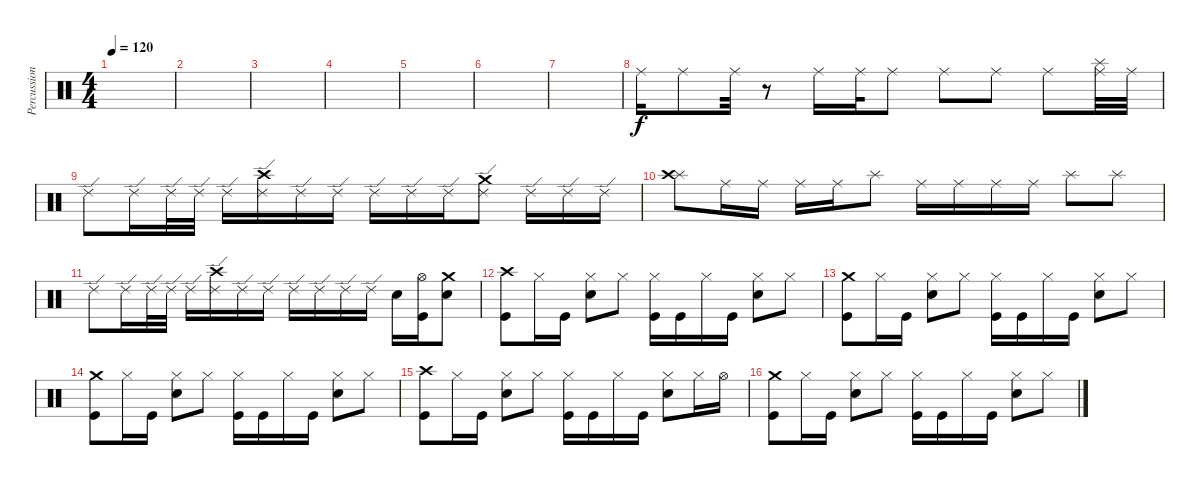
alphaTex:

\track ("Percussions" "Percussion") {instrument percussion}
\staff {score}
\articulation defaults
\ts (4 4)
\tempo 120
\clef neutral
\ks c
|
|
|
|
|
|
|
"Ride (middle)".16 "Ride (middle)".8 "Ride (middle)".32 r.8 "Ride (middle)".16 "Ride (middle)".32 "Ride (middle)".8 "Ride (middle)".8 "Ride (middle)".8 "Ride (middle)".8 ("Ride (middle)" "Splash (hit)").32 "Ride (middle)".32 |
"Ride (edge) 2".8 "Ride (edge) 2".16 "Ride (edge) 2".32 "Ride (edge) 2".32 "Ride (edge) 2".16 ("Ride (edge) 2" "Crash high (hit)").16 "Ride (edge) 2".16 "Ride (edge) 2".16 "Ride (edge) 2".16 "Ride (edge) 2".16 "Ride (edge) 2".16 ("Ride (edge) 2" "Crash medium (hit)").8 "Ride (edge) 2".16 "Ride (edge) 2".16 "Ride (edge) 2".16 |
("Splash (hit)" "Crash high (hit)").8 "Ride (middle)".16 "Ride (middle)".16 "Ride (middle)".16 "Ride (middle)".16 "Splash (hit)".8 "Ride (middle)".16 "Ride (middle)".16 "Ride (middle)".16 "Ride (middle)".16 "Splash (hit)".8 "Splash (hit)".8 |
"Ride (edge) 2".8 "Ride (edge) 2".16 "Ride (edge) 2".32 "Ride (edge) 2".32 "Ride (edge) 2".16 ("Ride (edge) 2" "Crash high (hit)").16 "Ride (edge) 2".16 "Ride (edge) 2".16 "Ride (edge) 2".16 "Ride (edge) 2".16 "Ride (edge) 2".16 "Ride (edge) 2".16 "Electric Snare (hit)".16 ("Hi-Hat (open)" "Kick (hit)").16 ("Snare (hit) 2" "Crash medium (hit)").8 |
("Crash high (hit)" "Kick (hit)").8 "Hi-Hat (closed)".16 "Kick (hit)".16 ("Hi-Hat (closed)" "Snare (hit) 2").8 "Hi-Hat (closed)".8 ("Hi-Hat (closed)" "Kick (hit)").16 "Kick (hit)".16 "Hi-Hat (closed)".16 "Kick (hit)".16 ("Hi-Hat (closed)" "Snare (hit) 2").8 "Hi-Hat (closed)".8 |
("Crash medium (hit)" "Kick (hit)").8 "Hi-Hat (closed)".16 "Kick (hit)".16 ("Hi-Hat (closed)" "Snare (hit) 2").8 "Hi-Hat (closed)".8 ("Hi-Hat (closed)" "Kick (hit)").16 "Kick (hit)".16 "Hi-Hat (closed)".16 "Kick (hit)".16 ("Hi-Hat (closed)" "Snare (hit) 2").8 "Hi-Hat (closed)".8 |
("Crash medium (hit)" "Kick (hit)").8 "Hi-Hat (closed)".16 "Kick (hit)".16 ("Hi-Hat (closed)" "Snare (hit) 2").8 "Hi-Hat (closed)".8 ("Hi-Hat (closed)" "Kick (hit)").16 "Kick (hit)".16 "Hi-Hat (closed)".16 "Kick (hit)".16 ("Hi-Hat (closed)" "Snare (hit) 2").8 "Hi-Hat (closed)".8 |
("Crash high (hit)" "Kick (hit)").8 "Hi-Hat (closed)".16 "Kick (hit)".16 ("Hi-Hat (closed)" "Snare (hit) 2").8 "Hi-Hat (closed)".8 ("Hi-Hat (closed)" "Kick (hit)").16 "Kick (hit)".16 "Hi-Hat (closed)".16 "Kick (hit)".16 ("Hi-Hat (closed)" "Snare (hit) 2").8 "Hi-Hat (closed)".16 "Hi-Hat (open)".16 |
("Crash medium (hit)" "Kick (hit)").8 "Hi-Hat (closed)".16 "Kick (hit)".16 ("Hi-Hat (closed)" "Snare (hit) 2").8 "Hi-Hat (closed)".8 ("Hi-Hat (closed)" "Kick (hit)").16 "Kick (hit)".16 "Hi-Hat (closed)".16 "Kick (hit)".16 ("Hi-Hat (closed)" "Snare (hit) 2").8 "Hi-Hat (closed)".8
